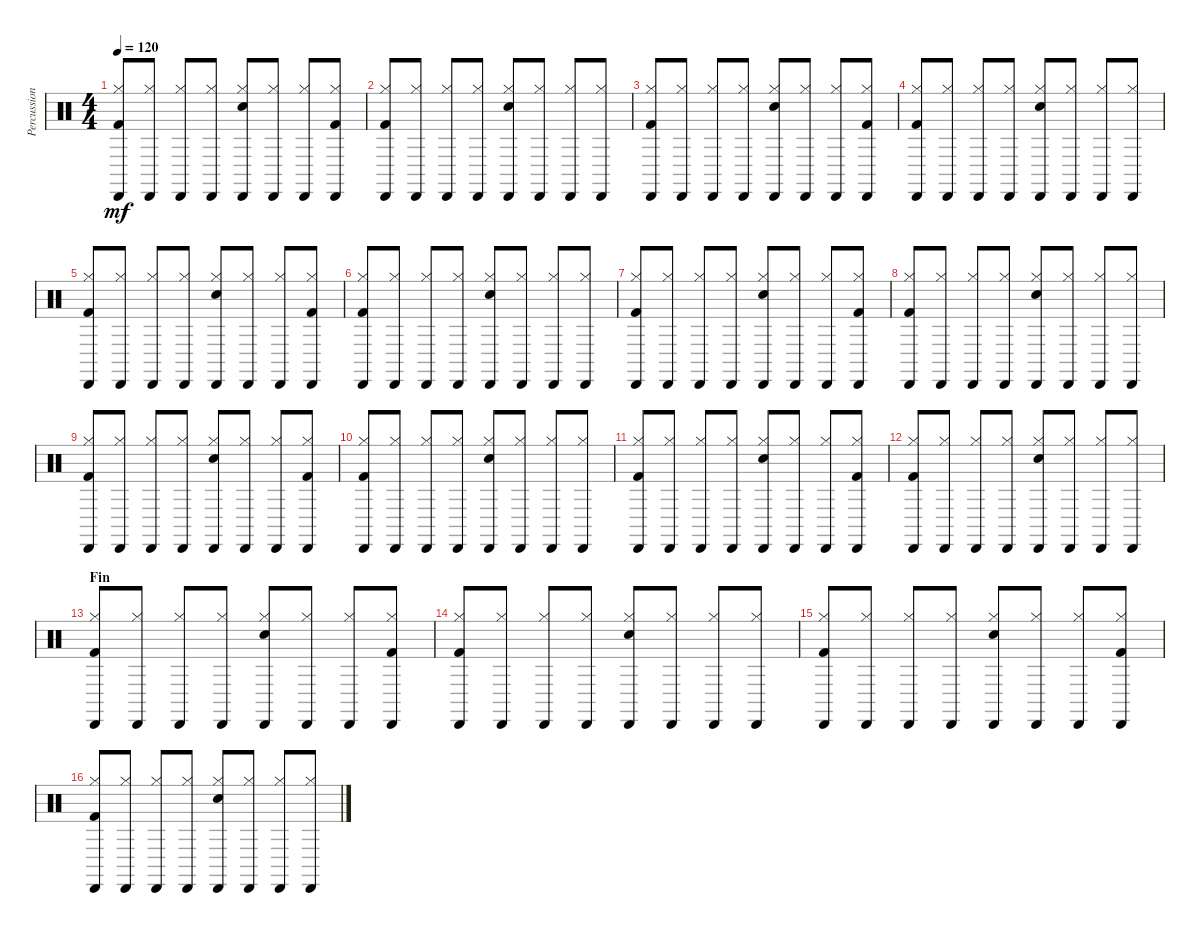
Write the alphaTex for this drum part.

\track ("Percussions" "Percussion") {instrument percussion}
\staff {score}
\articulation defaults
\ts (4 4)
\tempo 120
\clef neutral
\ks c
("Kick (hit) 2" "Cabasa (hit)" "Hi-Hat (closed)").8{dy mf} ("Cabasa (hit)" "Hi-Hat (closed)").8 ("Cabasa (hit)" "Hi-Hat (closed)").8 ("Cabasa (hit)" "Hi-Hat (closed)").8 ("Electric Snare (hit)" "Cabasa (hit)" "Hi-Hat (closed)").8 ("Cabasa (hit)" "Hi-Hat (closed)").8 ("Cabasa (hit)" "Hi-Hat (closed)").8 ("Kick (hit) 2" "Cabasa (hit)" "Hi-Hat (closed)").8 |
("Kick (hit) 2" "Cabasa (hit)" "Hi-Hat (closed)").8 ("Cabasa (hit)" "Hi-Hat (closed)").8 ("Cabasa (hit)" "Hi-Hat (closed)").8 ("Cabasa (hit)" "Hi-Hat (closed)").8 ("Electric Snare (hit)" "Cabasa (hit)" "Hi-Hat (closed)").8 ("Cabasa (hit)" "Hi-Hat (closed)").8 ("Cabasa (hit)" "Hi-Hat (closed)").8 ("Cabasa (hit)" "Hi-Hat (closed)").8 |
("Kick (hit) 2" "Cabasa (hit)" "Hi-Hat (closed)").8 ("Cabasa (hit)" "Hi-Hat (closed)").8 ("Cabasa (hit)" "Hi-Hat (closed)").8 ("Cabasa (hit)" "Hi-Hat (closed)").8 ("Electric Snare (hit)" "Cabasa (hit)" "Hi-Hat (closed)").8 ("Cabasa (hit)" "Hi-Hat (closed)").8 ("Cabasa (hit)" "Hi-Hat (closed)").8 ("Kick (hit) 2" "Cabasa (hit)" "Hi-Hat (closed)").8 |
("Kick (hit) 2" "Cabasa (hit)" "Hi-Hat (closed)").8 ("Cabasa (hit)" "Hi-Hat (closed)").8 ("Cabasa (hit)" "Hi-Hat (closed)").8 ("Cabasa (hit)" "Hi-Hat (closed)").8 ("Electric Snare (hit)" "Cabasa (hit)" "Hi-Hat (closed)").8 ("Cabasa (hit)" "Hi-Hat (closed)").8 ("Cabasa (hit)" "Hi-Hat (closed)").8 ("Cabasa (hit)" "Hi-Hat (closed)").8 |
("Kick (hit) 2" "Cabasa (hit)" "Hi-Hat (closed)").8 ("Cabasa (hit)" "Hi-Hat (closed)").8 ("Cabasa (hit)" "Hi-Hat (closed)").8 ("Cabasa (hit)" "Hi-Hat (closed)").8 ("Electric Snare (hit)" "Cabasa (hit)" "Hi-Hat (closed)").8 ("Cabasa (hit)" "Hi-Hat (closed)").8 ("Cabasa (hit)" "Hi-Hat (closed)").8 ("Kick (hit) 2" "Cabasa (hit)" "Hi-Hat (closed)").8 |
("Kick (hit) 2" "Cabasa (hit)" "Hi-Hat (closed)").8 ("Cabasa (hit)" "Hi-Hat (closed)").8 ("Cabasa (hit)" "Hi-Hat (closed)").8 ("Cabasa (hit)" "Hi-Hat (closed)").8 ("Electric Snare (hit)" "Cabasa (hit)" "Hi-Hat (closed)").8 ("Cabasa (hit)" "Hi-Hat (closed)").8 ("Cabasa (hit)" "Hi-Hat (closed)").8 ("Cabasa (hit)" "Hi-Hat (closed)").8 |
("Kick (hit) 2" "Cabasa (hit)" "Hi-Hat (closed)").8 ("Cabasa (hit)" "Hi-Hat (closed)").8 ("Cabasa (hit)" "Hi-Hat (closed)").8 ("Cabasa (hit)" "Hi-Hat (closed)").8 ("Electric Snare (hit)" "Cabasa (hit)" "Hi-Hat (closed)").8 ("Cabasa (hit)" "Hi-Hat (closed)").8 ("Cabasa (hit)" "Hi-Hat (closed)").8 ("Kick (hit) 2" "Cabasa (hit)" "Hi-Hat (closed)").8 |
("Kick (hit) 2" "Cabasa (hit)" "Hi-Hat (closed)").8 ("Cabasa (hit)" "Hi-Hat (closed)").8 ("Cabasa (hit)" "Hi-Hat (closed)").8 ("Cabasa (hit)" "Hi-Hat (closed)").8 ("Electric Snare (hit)" "Cabasa (hit)" "Hi-Hat (closed)").8 ("Cabasa (hit)" "Hi-Hat (closed)").8 ("Cabasa (hit)" "Hi-Hat (closed)").8 ("Cabasa (hit)" "Hi-Hat (closed)").8 |
("Kick (hit) 2" "Cabasa (hit)" "Hi-Hat (closed)").8 ("Cabasa (hit)" "Hi-Hat (closed)").8 ("Cabasa (hit)" "Hi-Hat (closed)").8 ("Cabasa (hit)" "Hi-Hat (closed)").8 ("Electric Snare (hit)" "Cabasa (hit)" "Hi-Hat (closed)").8 ("Cabasa (hit)" "Hi-Hat (closed)").8 ("Cabasa (hit)" "Hi-Hat (closed)").8 ("Kick (hit) 2" "Cabasa (hit)" "Hi-Hat (closed)").8 |
("Kick (hit) 2" "Cabasa (hit)" "Hi-Hat (closed)").8 ("Cabasa (hit)" "Hi-Hat (closed)").8 ("Cabasa (hit)" "Hi-Hat (closed)").8 ("Cabasa (hit)" "Hi-Hat (closed)").8 ("Electric Snare (hit)" "Cabasa (hit)" "Hi-Hat (closed)").8 ("Cabasa (hit)" "Hi-Hat (closed)").8 ("Cabasa (hit)" "Hi-Hat (closed)").8 ("Cabasa (hit)" "Hi-Hat (closed)").8 |
("Kick (hit) 2" "Cabasa (hit)" "Hi-Hat (closed)").8 ("Cabasa (hit)" "Hi-Hat (closed)").8 ("Cabasa (hit)" "Hi-Hat (closed)").8 ("Cabasa (hit)" "Hi-Hat (closed)").8 ("Electric Snare (hit)" "Cabasa (hit)" "Hi-Hat (closed)").8 ("Cabasa (hit)" "Hi-Hat (closed)").8 ("Cabasa (hit)" "Hi-Hat (closed)").8 ("Kick (hit) 2" "Cabasa (hit)" "Hi-Hat (closed)").8 |
("Kick (hit) 2" "Cabasa (hit)" "Hi-Hat (closed)").8 ("Cabasa (hit)" "Hi-Hat (closed)").8 ("Cabasa (hit)" "Hi-Hat (closed)").8 ("Cabasa (hit)" "Hi-Hat (closed)").8 ("Electric Snare (hit)" "Cabasa (hit)" "Hi-Hat (closed)").8 ("Cabasa (hit)" "Hi-Hat (closed)").8 ("Cabasa (hit)" "Hi-Hat (closed)").8 ("Cabasa (hit)" "Hi-Hat (closed)").8 |
\section ("" "Fin")
("Kick (hit) 2" "Cabasa (hit)" "Hi-Hat (closed)").8 ("Cabasa (hit)" "Hi-Hat (closed)").8 ("Cabasa (hit)" "Hi-Hat (closed)").8 ("Cabasa (hit)" "Hi-Hat (closed)").8 ("Electric Snare (hit)" "Cabasa (hit)" "Hi-Hat (closed)").8 ("Cabasa (hit)" "Hi-Hat (closed)").8 ("Cabasa (hit)" "Hi-Hat (closed)").8 ("Kick (hit) 2" "Cabasa (hit)" "Hi-Hat (closed)").8 |
("Kick (hit) 2" "Cabasa (hit)" "Hi-Hat (closed)").8 ("Cabasa (hit)" "Hi-Hat (closed)").8 ("Cabasa (hit)" "Hi-Hat (closed)").8 ("Cabasa (hit)" "Hi-Hat (closed)").8 ("Electric Snare (hit)" "Cabasa (hit)" "Hi-Hat (closed)").8 ("Cabasa (hit)" "Hi-Hat (closed)").8 ("Cabasa (hit)" "Hi-Hat (closed)").8 ("Cabasa (hit)" "Hi-Hat (closed)").8 |
("Kick (hit) 2" "Cabasa (hit)" "Hi-Hat (closed)").8 ("Cabasa (hit)" "Hi-Hat (closed)").8 ("Cabasa (hit)" "Hi-Hat (closed)").8 ("Cabasa (hit)" "Hi-Hat (closed)").8 ("Electric Snare (hit)" "Cabasa (hit)" "Hi-Hat (closed)").8 ("Cabasa (hit)" "Hi-Hat (closed)").8 ("Cabasa (hit)" "Hi-Hat (closed)").8 ("Kick (hit) 2" "Cabasa (hit)" "Hi-Hat (closed)").8 |
("Kick (hit) 2" "Cabasa (hit)" "Hi-Hat (closed)").8 ("Cabasa (hit)" "Hi-Hat (closed)").8 ("Cabasa (hit)" "Hi-Hat (closed)").8 ("Cabasa (hit)" "Hi-Hat (closed)").8 ("Electric Snare (hit)" "Cabasa (hit)" "Hi-Hat (closed)").8 ("Cabasa (hit)" "Hi-Hat (closed)").8 ("Cabasa (hit)" "Hi-Hat (closed)").8 ("Cabasa (hit)" "Hi-Hat (closed)").8
